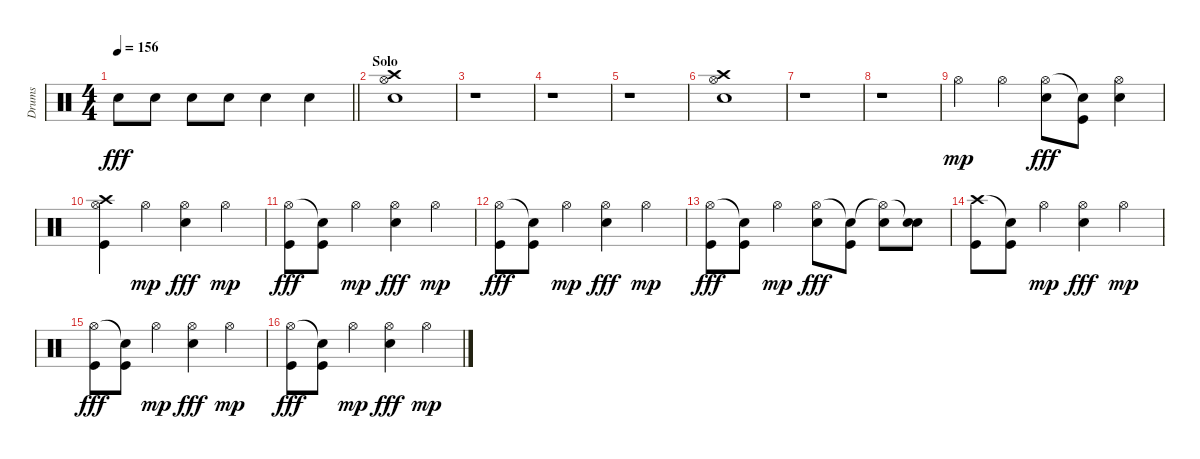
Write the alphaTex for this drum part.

\track ("Drums" "Drums") {instrument percussion}
\staff {score}
\articulation defaults
\ts (4 4)
\tempo 156
\clef neutral
\barLineRight lightlight
\ks c "Electric Snare (hit)".8{dy fff} "Electric Snare (hit)".8 "Electric Snare (hit)".8 "Electric Snare (hit)".8 "Electric Snare (hit)".4 "Electric Snare (hit)".4
|
\section ("" "Solo")
("Crash high (hit)" "Hi-Hat (open)" "Snare (hit) 2").1 |
r.1 |
r.1 |
r.1 |
("Crash high (hit)" "Hi-Hat (open)" "Snare (hit) 2").1 |
r.1 |
r.1 |
"Hi-Hat (open)".4{dy mp} "Hi-Hat (open)".4 ("Hi-Hat (open)" "Snare (hit) 2").8{dy fff} ("Snare (hit)"{t} "Kick (hit)").8 ("Hi-Hat (open)" "Snare (hit) 2").4 |
("Crash high (hit)" "Hi-Hat (open)" "Kick (hit)").4 "Hi-Hat (open)".4{dy mp} ("Hi-Hat (open)" "Snare (hit) 2").4{dy fff} "Hi-Hat (open)".4{dy mp} |
("Hi-Hat (open)" "Kick (hit)").8{dy fff} ("Snare (hit)"{t} "Kick (hit)").8 "Hi-Hat (open)".4{dy mp} ("Hi-Hat (open)" "Snare (hit) 2").4{dy fff} "Hi-Hat (open)".4{dy mp} |
("Hi-Hat (open)" "Kick (hit)").8{dy fff} ("Snare (hit)"{t} "Kick (hit)").8 "Hi-Hat (open)".4{dy mp} ("Hi-Hat (open)" "Snare (hit) 2").4{dy fff} "Hi-Hat (open)".4{dy mp} |
("Hi-Hat (open)" "Kick (hit)").8{dy fff} ("Snare (hit)"{t} "Kick (hit)").8 "Hi-Hat (open)".4{dy mp} ("Hi-Hat (open)" "Snare (hit) 2").8{dy fff} ("Snare (hit)"{t} "Kick (hit)").8 ("Hi-Hat (open)"{t} "Snare (hit) 2").8 ("Snare (hit)"{t} "Snare (hit) 2").8 |
("Crash high (hit)" "Kick (hit)").8 ("Snare (hit)"{t} "Kick (hit)").8 "Hi-Hat (open)".4{dy mp} ("Hi-Hat (open)" "Snare (hit) 2").4{dy fff} "Hi-Hat (open)".4{dy mp} |
("Hi-Hat (open)" "Kick (hit)").8{dy fff} ("Snare (hit)"{t} "Kick (hit)").8 "Hi-Hat (open)".4{dy mp} ("Hi-Hat (open)" "Snare (hit) 2").4{dy fff} "Hi-Hat (open)".4{dy mp} |
("Hi-Hat (open)" "Kick (hit)").8{dy fff} ("Snare (hit)"{t} "Kick (hit)").8 "Hi-Hat (open)".4{dy mp} ("Hi-Hat (open)" "Snare (hit) 2").4{dy fff} "Hi-Hat (open)".4{dy mp}
